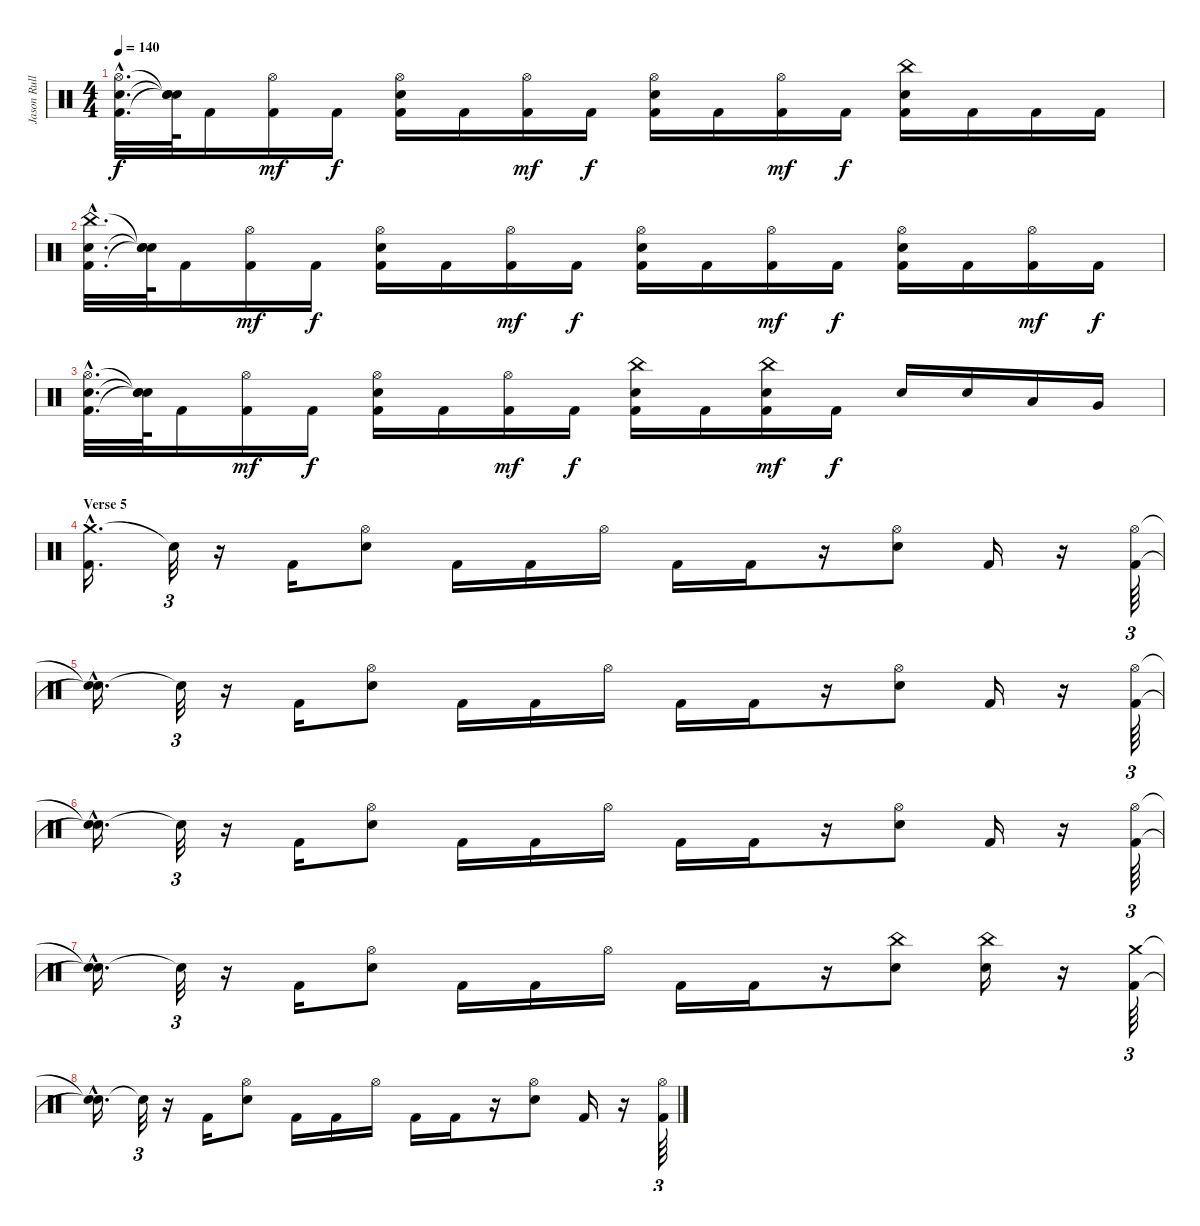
\track ("Jason Rullo" "Jason Rull") {instrument percussion}
\staff {score}
\articulation defaults
\ts (4 4)
\tempo 140
\clef neutral
\ks c
("Hi-Hat (open)"{hac} "Electric Snare (hit)"{hac} "Kick (hit) 2"{hac}).32{d dy f} ("Snare (hit)"{t} "Snare (hit)"{t} "Snare (hit)"{t}).64 "Kick (hit) 2".16 ("Hi-Hat (open)" "Kick (hit) 2").16{dy mf} "Kick (hit) 2".16{dy f} ("Hi-Hat (open)" "Electric Snare (hit)" "Kick (hit) 2").16 "Kick (hit) 2".16 ("Hi-Hat (open)" "Kick (hit) 2").16{dy mf} "Kick (hit) 2".16{dy f} ("Hi-Hat (open)" "Electric Snare (hit)" "Kick (hit) 2").16 "Kick (hit) 2".16 ("Hi-Hat (open)" "Kick (hit) 2").16{dy mf} "Kick (hit) 2".16{dy f} ("China (hit)" "Electric Snare (hit)" "Kick (hit) 2").16 "Kick (hit) 2".16 "Kick (hit) 2".16 "Kick (hit) 2".16 |
("China (hit)"{hac} "Electric Snare (hit)"{hac} "Kick (hit) 2"{hac}).32{d} ("Snare (hit)"{t} "Snare (hit)"{t} "Snare (hit)"{t}).64 "Kick (hit) 2".16 ("Hi-Hat (open)" "Kick (hit) 2").16{dy mf} "Kick (hit) 2".16{dy f} ("Hi-Hat (open)" "Electric Snare (hit)" "Kick (hit) 2").16 "Kick (hit) 2".16 ("Hi-Hat (open)" "Kick (hit) 2").16{dy mf} "Kick (hit) 2".16{dy f} ("Hi-Hat (open)" "Electric Snare (hit)" "Kick (hit) 2").16 "Kick (hit) 2".16 ("Hi-Hat (open)" "Kick (hit) 2").16{dy mf} "Kick (hit) 2".16{dy f} ("Hi-Hat (open)" "Electric Snare (hit)" "Kick (hit) 2").16 "Kick (hit) 2".16 ("Hi-Hat (open)" "Kick (hit) 2").16{dy mf} "Kick (hit) 2".16{dy f} |
("Hi-Hat (open)"{hac} "Electric Snare (hit)"{hac} "Kick (hit) 2"{hac}).32{d} ("Snare (hit)"{t} "Snare (hit)"{t} "Snare (hit)"{t}).64 "Kick (hit) 2".16 ("Hi-Hat (open)" "Kick (hit) 2").16{dy mf} "Kick (hit) 2".16{dy f} ("Hi-Hat (open)" "Electric Snare (hit)" "Kick (hit) 2").16 "Kick (hit) 2".16 ("Hi-Hat (open)" "Kick (hit) 2").16{dy mf} "Kick (hit) 2".16{dy f} ("China (hit)" "Electric Snare (hit)" "Kick (hit) 2").16 "Kick (hit) 2".16 ("Electric Snare (hit)" "China (hit)" "Kick (hit) 2").16{dy mf} "Kick (hit) 2".16{dy f} "Electric Snare (hit)".16 "Electric Snare (hit)".16 "Low Tom (hit)".16 "Very Low Tom (hit)".16 |
\section ("" "Verse 5")
("Crash medium (hit)"{hac} "Kick (hit) 2"{hac}).16{d} "Snare (hit)"{t}.32{tu (3 2)} r.16 "Kick (hit) 2".16 ("Hi-Hat (open)" "Electric Snare (hit)").8 "Kick (hit) 2".16 "Kick (hit) 2".16 "Hi-Hat (open)".16 "Kick (hit) 2".16 "Kick (hit) 2".16 r.16 ("Hi-Hat (open)" "Electric Snare (hit)").8 "Kick (hit) 2".16 r.16 ("Hi-Hat (open)" "Kick (hit) 2").64{tu (3 2)} |
("Snare (hit)"{hac t} "Snare (hit)"{hac t}).16{d} "Snare (hit)"{t}.32{tu (3 2)} r.16 "Kick (hit) 2".16 ("Hi-Hat (open)" "Electric Snare (hit)").8 "Kick (hit) 2".16 "Kick (hit) 2".16 "Hi-Hat (open)".16 "Kick (hit) 2".16 "Kick (hit) 2".16 r.16 ("Hi-Hat (open)" "Electric Snare (hit)").8 "Kick (hit) 2".16 r.16 ("Hi-Hat (open)" "Kick (hit) 2").64{tu (3 2)} |
("Snare (hit)"{hac t} "Snare (hit)"{hac t}).16{d} "Snare (hit)"{t}.32{tu (3 2)} r.16 "Kick (hit) 2".16 ("Hi-Hat (open)" "Electric Snare (hit)").8 "Kick (hit) 2".16 "Kick (hit) 2".16 "Hi-Hat (open)".16 "Kick (hit) 2".16 "Kick (hit) 2".16 r.16 ("Hi-Hat (open)" "Electric Snare (hit)").8 "Kick (hit) 2".16 r.16 ("Hi-Hat (open)" "Kick (hit) 2").64{tu (3 2)} |
("Snare (hit)"{hac t} "Snare (hit)"{hac t}).16{d} "Snare (hit)"{t}.32{tu (3 2)} r.16 "Kick (hit) 2".16 ("Hi-Hat (open)" "Electric Snare (hit)").8 "Kick (hit) 2".16 "Kick (hit) 2".16 "Hi-Hat (open)".16 "Kick (hit) 2".16 "Kick (hit) 2".16 r.16 ("China (hit)" "Electric Snare (hit)").8 ("China (hit)" "Electric Snare (hit)").16 r.16 ("Crash medium (hit)" "Kick (hit) 2").64{tu (3 2)} |
("Snare (hit)"{hac t} "Snare (hit)"{hac t}).16{d} "Snare (hit)"{t}.32{tu (3 2)} r.16 "Kick (hit) 2".16 ("Hi-Hat (open)" "Electric Snare (hit)").8 "Kick (hit) 2".16 "Kick (hit) 2".16 "Hi-Hat (open)".16 "Kick (hit) 2".16 "Kick (hit) 2".16 r.16 ("Hi-Hat (open)" "Electric Snare (hit)").8 "Kick (hit) 2".16 r.16 ("Hi-Hat (open)" "Kick (hit) 2").64{tu (3 2)}
